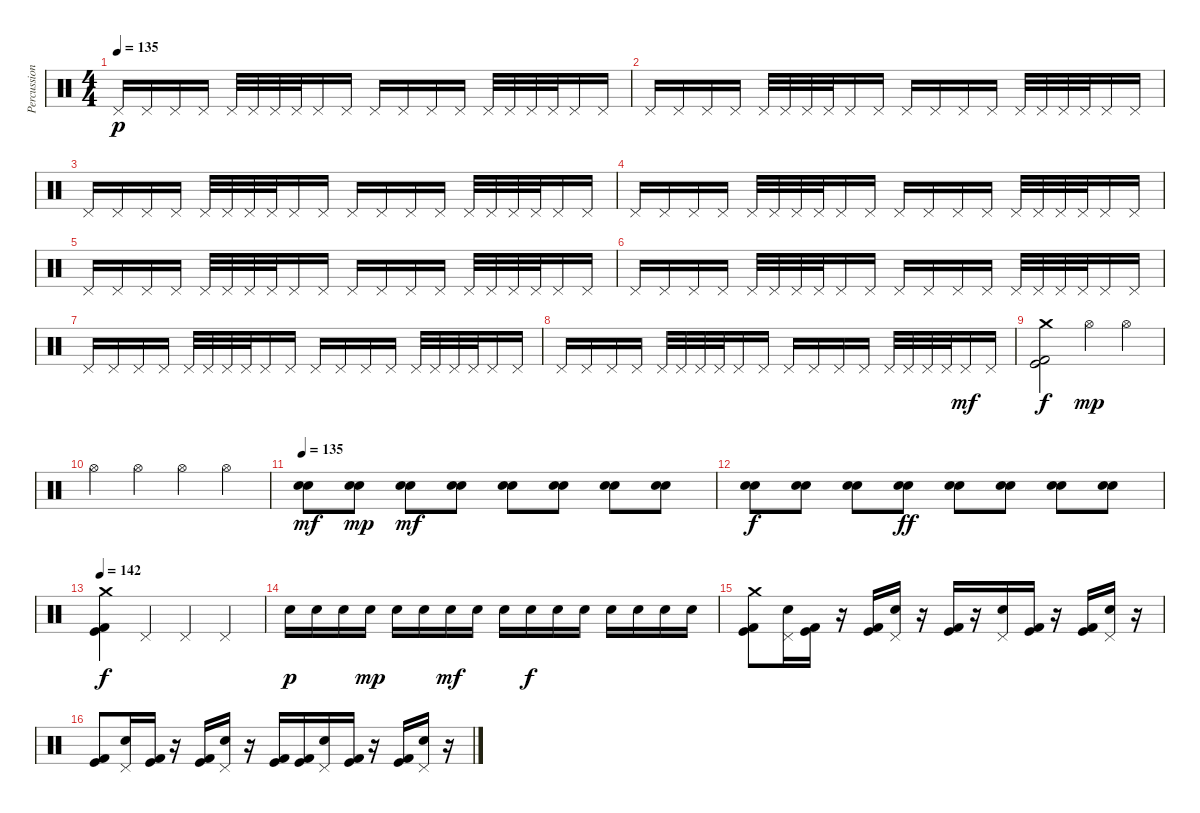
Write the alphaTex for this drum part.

\track ("Percussions" "Percussion") {instrument percussion}
\staff {score}
\articulation defaults
\ts (4 4)
\tempo 135
\clef neutral
\ks c "Pedal Hi-Hat (hit)".16{dy p} "Pedal Hi-Hat (hit)".16 "Pedal Hi-Hat (hit)".16 "Pedal Hi-Hat (hit)".16 "Pedal Hi-Hat (hit)".32 "Pedal Hi-Hat (hit)".32 "Pedal Hi-Hat (hit)".32 "Pedal Hi-Hat (hit)".32 "Pedal Hi-Hat (hit)".16 "Pedal Hi-Hat (hit)".16 "Pedal Hi-Hat (hit)".16 "Pedal Hi-Hat (hit)".16 "Pedal Hi-Hat (hit)".16 "Pedal Hi-Hat (hit)".16 "Pedal Hi-Hat (hit)".32 "Pedal Hi-Hat (hit)".32 "Pedal Hi-Hat (hit)".32 "Pedal Hi-Hat (hit)".32 "Pedal Hi-Hat (hit)".16 "Pedal Hi-Hat (hit)".16
|
"Pedal Hi-Hat (hit)".16 "Pedal Hi-Hat (hit)".16 "Pedal Hi-Hat (hit)".16 "Pedal Hi-Hat (hit)".16 "Pedal Hi-Hat (hit)".32 "Pedal Hi-Hat (hit)".32 "Pedal Hi-Hat (hit)".32 "Pedal Hi-Hat (hit)".32 "Pedal Hi-Hat (hit)".16 "Pedal Hi-Hat (hit)".16 "Pedal Hi-Hat (hit)".16 "Pedal Hi-Hat (hit)".16 "Pedal Hi-Hat (hit)".16 "Pedal Hi-Hat (hit)".16 "Pedal Hi-Hat (hit)".32 "Pedal Hi-Hat (hit)".32 "Pedal Hi-Hat (hit)".32 "Pedal Hi-Hat (hit)".32 "Pedal Hi-Hat (hit)".16 "Pedal Hi-Hat (hit)".16 |
"Pedal Hi-Hat (hit)".16 "Pedal Hi-Hat (hit)".16 "Pedal Hi-Hat (hit)".16 "Pedal Hi-Hat (hit)".16 "Pedal Hi-Hat (hit)".32 "Pedal Hi-Hat (hit)".32 "Pedal Hi-Hat (hit)".32 "Pedal Hi-Hat (hit)".32 "Pedal Hi-Hat (hit)".16 "Pedal Hi-Hat (hit)".16 "Pedal Hi-Hat (hit)".16 "Pedal Hi-Hat (hit)".16 "Pedal Hi-Hat (hit)".16 "Pedal Hi-Hat (hit)".16 "Pedal Hi-Hat (hit)".32 "Pedal Hi-Hat (hit)".32 "Pedal Hi-Hat (hit)".32 "Pedal Hi-Hat (hit)".32 "Pedal Hi-Hat (hit)".16 "Pedal Hi-Hat (hit)".16 |
"Pedal Hi-Hat (hit)".16 "Pedal Hi-Hat (hit)".16 "Pedal Hi-Hat (hit)".16 "Pedal Hi-Hat (hit)".16 "Pedal Hi-Hat (hit)".32 "Pedal Hi-Hat (hit)".32 "Pedal Hi-Hat (hit)".32 "Pedal Hi-Hat (hit)".32 "Pedal Hi-Hat (hit)".16 "Pedal Hi-Hat (hit)".16 "Pedal Hi-Hat (hit)".16 "Pedal Hi-Hat (hit)".16 "Pedal Hi-Hat (hit)".16 "Pedal Hi-Hat (hit)".16 "Pedal Hi-Hat (hit)".32 "Pedal Hi-Hat (hit)".32 "Pedal Hi-Hat (hit)".32 "Pedal Hi-Hat (hit)".32 "Pedal Hi-Hat (hit)".16 "Pedal Hi-Hat (hit)".16 |
"Pedal Hi-Hat (hit)".16 "Pedal Hi-Hat (hit)".16 "Pedal Hi-Hat (hit)".16 "Pedal Hi-Hat (hit)".16 "Pedal Hi-Hat (hit)".32 "Pedal Hi-Hat (hit)".32 "Pedal Hi-Hat (hit)".32 "Pedal Hi-Hat (hit)".32 "Pedal Hi-Hat (hit)".16 "Pedal Hi-Hat (hit)".16 "Pedal Hi-Hat (hit)".16 "Pedal Hi-Hat (hit)".16 "Pedal Hi-Hat (hit)".16 "Pedal Hi-Hat (hit)".16 "Pedal Hi-Hat (hit)".32 "Pedal Hi-Hat (hit)".32 "Pedal Hi-Hat (hit)".32 "Pedal Hi-Hat (hit)".32 "Pedal Hi-Hat (hit)".16 "Pedal Hi-Hat (hit)".16 |
"Pedal Hi-Hat (hit)".16 "Pedal Hi-Hat (hit)".16 "Pedal Hi-Hat (hit)".16 "Pedal Hi-Hat (hit)".16 "Pedal Hi-Hat (hit)".32 "Pedal Hi-Hat (hit)".32 "Pedal Hi-Hat (hit)".32 "Pedal Hi-Hat (hit)".32 "Pedal Hi-Hat (hit)".16 "Pedal Hi-Hat (hit)".16 "Pedal Hi-Hat (hit)".16 "Pedal Hi-Hat (hit)".16 "Pedal Hi-Hat (hit)".16 "Pedal Hi-Hat (hit)".16 "Pedal Hi-Hat (hit)".32 "Pedal Hi-Hat (hit)".32 "Pedal Hi-Hat (hit)".32 "Pedal Hi-Hat (hit)".32 "Pedal Hi-Hat (hit)".16 "Pedal Hi-Hat (hit)".16 |
"Pedal Hi-Hat (hit)".16 "Pedal Hi-Hat (hit)".16 "Pedal Hi-Hat (hit)".16 "Pedal Hi-Hat (hit)".16 "Pedal Hi-Hat (hit)".32 "Pedal Hi-Hat (hit)".32 "Pedal Hi-Hat (hit)".32 "Pedal Hi-Hat (hit)".32 "Pedal Hi-Hat (hit)".16 "Pedal Hi-Hat (hit)".16 "Pedal Hi-Hat (hit)".16 "Pedal Hi-Hat (hit)".16 "Pedal Hi-Hat (hit)".16 "Pedal Hi-Hat (hit)".16 "Pedal Hi-Hat (hit)".32 "Pedal Hi-Hat (hit)".32 "Pedal Hi-Hat (hit)".32 "Pedal Hi-Hat (hit)".32 "Pedal Hi-Hat (hit)".16 "Pedal Hi-Hat (hit)".16 |
"Pedal Hi-Hat (hit)".16 "Pedal Hi-Hat (hit)".16 "Pedal Hi-Hat (hit)".16 "Pedal Hi-Hat (hit)".16 "Pedal Hi-Hat (hit)".32 "Pedal Hi-Hat (hit)".32 "Pedal Hi-Hat (hit)".32 "Pedal Hi-Hat (hit)".32 "Pedal Hi-Hat (hit)".16 "Pedal Hi-Hat (hit)".16 "Pedal Hi-Hat (hit)".16 "Pedal Hi-Hat (hit)".16 "Pedal Hi-Hat (hit)".16 "Pedal Hi-Hat (hit)".16 "Pedal Hi-Hat (hit)".32 "Pedal Hi-Hat (hit)".32 "Pedal Hi-Hat (hit)".32 "Pedal Hi-Hat (hit)".32 "Pedal Hi-Hat (hit)".16{dy mf} "Pedal Hi-Hat (hit)".16 |
("Crash medium (hit)" "Kick (hit)" "Kick (hit) 2").2{dy f} "Hi-Hat (open)".4{dy mp} "Hi-Hat (open)".4 |
"Hi-Hat (open)".4 "Hi-Hat (open)".4 "Hi-Hat (open)".4 "Hi-Hat (open)".4 |
\tempo 135
("Electric Snare (hit)" "Electric Snare (hit)").8{bd 60 dy mf} ("Electric Snare (hit)" "Electric Snare (hit)").8{bd 60 dy mp} ("Electric Snare (hit)" "Electric Snare (hit)").8{bd 60 dy mf} ("Electric Snare (hit)" "Electric Snare (hit)").8{bd 60} ("Electric Snare (hit)" "Electric Snare (hit)").8{bd 60} ("Electric Snare (hit)" "Electric Snare (hit)").8{bd 60} ("Electric Snare (hit)" "Electric Snare (hit)").8{bd 60} ("Electric Snare (hit)" "Electric Snare (hit)").8{bd 60} |
("Electric Snare (hit)" "Electric Snare (hit)").8{bd 60 dy f} ("Electric Snare (hit)" "Electric Snare (hit)").8{bd 60} ("Electric Snare (hit)" "Electric Snare (hit)").8{bd 60} ("Electric Snare (hit)" "Electric Snare (hit)").8{bd 60 dy ff} ("Electric Snare (hit)" "Electric Snare (hit)").8{bd 60} ("Electric Snare (hit)" "Electric Snare (hit)").8{bd 60} ("Electric Snare (hit)" "Electric Snare (hit)").8{bd 60} ("Electric Snare (hit)" "Electric Snare (hit)").8{bd 60} |
\tempo 142
("Crash medium (hit)" "Kick (hit)" "Kick (hit) 2").4{dy f} "Pedal Hi-Hat (hit)".4 "Pedal Hi-Hat (hit)".4 "Pedal Hi-Hat (hit)".4 |
"Electric Snare (hit)".16{dy p} "Electric Snare (hit)".16 "Electric Snare (hit)".16 "Electric Snare (hit)".16{dy mp} "Electric Snare (hit)".16 "Electric Snare (hit)".16 "Electric Snare (hit)".16{dy mf} "Electric Snare (hit)".16 "Electric Snare (hit)".16 "Electric Snare (hit)".16{dy f} "Electric Snare (hit)".16 "Electric Snare (hit)".16 "Electric Snare (hit)".16 "Electric Snare (hit)".16 "Electric Snare (hit)".16 "Electric Snare (hit)".16 |
("Crash medium (hit)" "Kick (hit)" "Kick (hit) 2").8 ("Pedal Hi-Hat (hit)" "Electric Snare (hit)").16 ("Kick (hit)" "Kick (hit) 2").16 r.16 ("Kick (hit)" "Kick (hit) 2").16 ("Pedal Hi-Hat (hit)" "Electric Snare (hit)").16 r.16 ("Kick (hit)" "Kick (hit) 2").16 r.16 ("Pedal Hi-Hat (hit)" "Electric Snare (hit)").16 ("Kick (hit)" "Kick (hit) 2").16 r.16 ("Kick (hit)" "Kick (hit) 2").16 ("Pedal Hi-Hat (hit)" "Electric Snare (hit)").16 r.16 |
("Kick (hit)" "Kick (hit) 2").8 ("Pedal Hi-Hat (hit)" "Electric Snare (hit)").16 ("Kick (hit)" "Kick (hit) 2").16 r.16 ("Kick (hit)" "Kick (hit) 2").16 ("Pedal Hi-Hat (hit)" "Electric Snare (hit)").16 r.16 ("Kick (hit)" "Kick (hit) 2").16 ("Kick (hit)" "Kick (hit) 2").16 ("Pedal Hi-Hat (hit)" "Electric Snare (hit)").16 ("Kick (hit)" "Kick (hit) 2").16 r.16 ("Kick (hit)" "Kick (hit) 2").16 ("Pedal Hi-Hat (hit)" "Electric Snare (hit)").16 r.16
